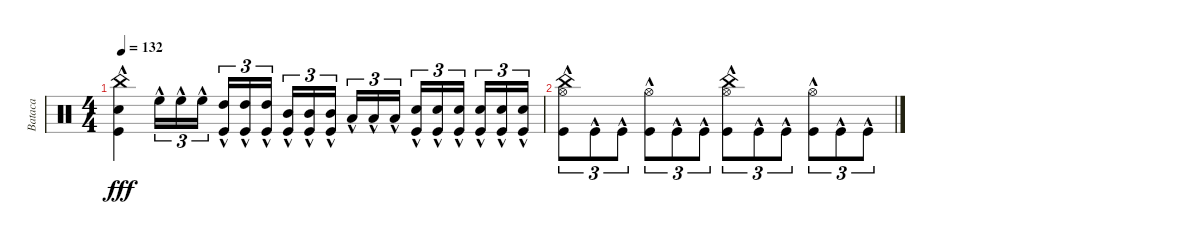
\track ("Bataca" "Bataca") {instrument percussion}
\staff {score}
\articulation defaults
\ts (4 4)
\tempo 132
\clef neutral
\ks c
("China (hit)"{hac} "Electric Snare (hit)"{hac} "Kick (hit)"{hac}).4{dy fff} "High Floor Tom (hit)"{hac}.16{tu (3 2)} "High Floor Tom (hit)"{hac}.16{tu (3 2)} "High Floor Tom (hit)"{hac}.16{tu (3 2) beam splitsecondary} ("High Tom (hit)"{hac} "Kick (hit)"{hac}).16{tu (3 2)} ("High Tom (hit)"{hac} "Kick (hit)"{hac}).16{tu (3 2)} ("High Tom (hit)"{hac} "Kick (hit)"{hac}).16{tu (3 2)} ("Mid Tom (hit)"{hac} "Kick (hit)"{hac}).16{tu (3 2)} ("Mid Tom (hit)"{hac} "Kick (hit)"{hac}).16{tu (3 2)} ("Mid Tom (hit)"{hac} "Kick (hit)"{hac}).16{tu (3 2) beam splitsecondary} "Low Tom (hit)"{hac}.16{tu (3 2)} "Low Tom (hit)"{hac}.16{tu (3 2)} "Low Tom (hit)"{hac}.16{tu (3 2)} ("Electric Snare (hit)"{hac} "Kick (hit)"{hac}).16{tu (3 2)} ("Electric Snare (hit)"{hac} "Kick (hit)"{hac}).16{tu (3 2)} ("Electric Snare (hit)"{hac} "Kick (hit)"{hac}).16{tu (3 2) beam splitsecondary} ("Electric Snare (hit)"{hac} "Kick (hit)"{hac}).16{tu (3 2)} ("Electric Snare (hit)"{hac} "Kick (hit)"{hac}).16{tu (3 2)} ("Electric Snare (hit)"{hac} "Kick (hit)"{hac}).16{tu (3 2)} |
("China (hit)"{hac} "Hi-Hat (open)"{hac} "Kick (hit)"{hac}).8{tu (3 2)} "Kick (hit)"{hac}.8{tu (3 2)} "Kick (hit)"{hac}.8{tu (3 2)} ("Hi-Hat (open)"{hac} "Kick (hit)"{hac}).8{tu (3 2)} "Kick (hit)"{hac}.8{tu (3 2)} "Kick (hit)"{hac}.8{tu (3 2)} ("China (hit)"{hac} "Hi-Hat (open)"{hac} "Kick (hit)"{hac}).8{tu (3 2)} "Kick (hit)"{hac}.8{tu (3 2)} "Kick (hit)"{hac}.8{tu (3 2)} ("Hi-Hat (open)"{hac} "Kick (hit)"{hac}).8{tu (3 2)} "Kick (hit)"{hac}.8{tu (3 2)} "Kick (hit)"{hac}.8{tu (3 2)}
